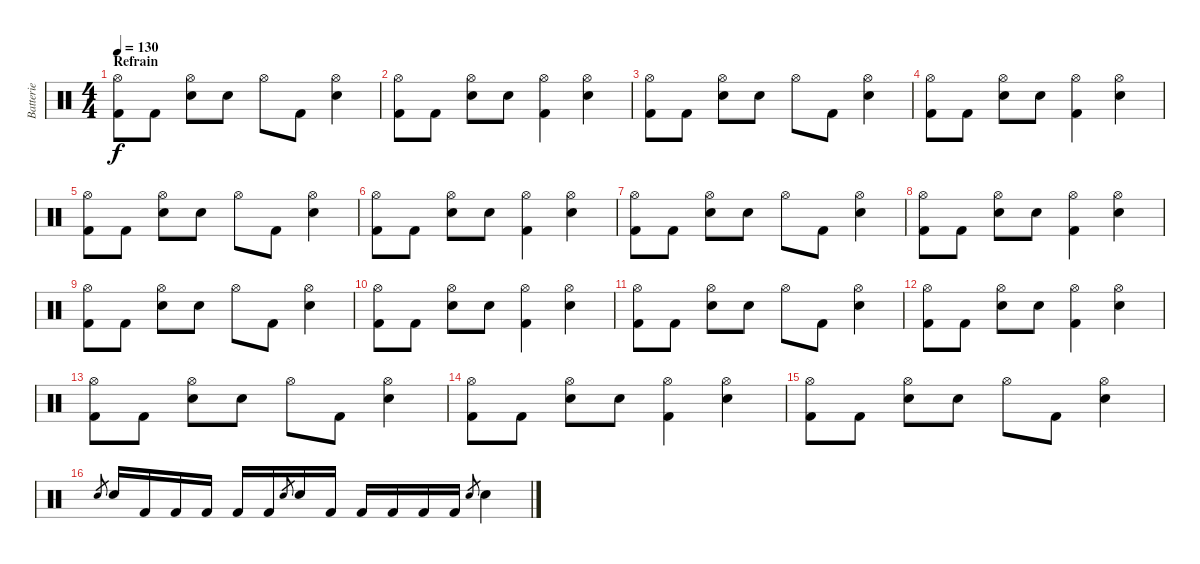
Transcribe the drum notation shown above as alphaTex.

\track ("Batterie" "Batterie") {instrument percussion}
\staff {score}
\articulation defaults
\ts (4 4)
\section ("" "Refrain")
\tempo 130
\clef neutral
\ks c
("Hi-Hat (open)" "Kick (hit) 2").8{dy f} "Kick (hit) 2".8 ("Hi-Hat (open)" "Snare (hit) 2").8 "Snare (hit) 2".8 "Hi-Hat (open)".8 "Kick (hit) 2".8 ("Hi-Hat (open)" "Snare (hit) 2").4 |
("Hi-Hat (open)" "Kick (hit) 2").8 "Kick (hit) 2".8 ("Hi-Hat (open)" "Snare (hit) 2").8 "Snare (hit) 2".8 ("Hi-Hat (open)" "Kick (hit) 2").4 ("Hi-Hat (open)" "Snare (hit) 2").4 |
("Hi-Hat (open)" "Kick (hit) 2").8 "Kick (hit) 2".8 ("Hi-Hat (open)" "Snare (hit) 2").8 "Snare (hit) 2".8 "Hi-Hat (open)".8 "Kick (hit) 2".8 ("Hi-Hat (open)" "Snare (hit) 2").4 |
("Hi-Hat (open)" "Kick (hit) 2").8 "Kick (hit) 2".8 ("Hi-Hat (open)" "Snare (hit) 2").8 "Snare (hit) 2".8 ("Hi-Hat (open)" "Kick (hit) 2").4 ("Hi-Hat (open)" "Snare (hit) 2").4 |
("Hi-Hat (open)" "Kick (hit) 2").8 "Kick (hit) 2".8 ("Hi-Hat (open)" "Snare (hit) 2").8 "Snare (hit) 2".8 "Hi-Hat (open)".8 "Kick (hit) 2".8 ("Hi-Hat (open)" "Snare (hit) 2").4 |
("Hi-Hat (open)" "Kick (hit) 2").8 "Kick (hit) 2".8 ("Hi-Hat (open)" "Snare (hit) 2").8 "Snare (hit) 2".8 ("Hi-Hat (open)" "Kick (hit) 2").4 ("Hi-Hat (open)" "Snare (hit) 2").4 |
("Hi-Hat (open)" "Kick (hit) 2").8 "Kick (hit) 2".8 ("Hi-Hat (open)" "Snare (hit) 2").8 "Snare (hit) 2".8 "Hi-Hat (open)".8 "Kick (hit) 2".8 ("Hi-Hat (open)" "Snare (hit) 2").4 |
("Hi-Hat (open)" "Kick (hit) 2").8 "Kick (hit) 2".8 ("Hi-Hat (open)" "Snare (hit) 2").8 "Snare (hit) 2".8 ("Hi-Hat (open)" "Kick (hit) 2").4 ("Hi-Hat (open)" "Snare (hit) 2").4 |
("Hi-Hat (open)" "Kick (hit) 2").8 "Kick (hit) 2".8 ("Hi-Hat (open)" "Snare (hit) 2").8 "Snare (hit) 2".8 "Hi-Hat (open)".8 "Kick (hit) 2".8 ("Hi-Hat (open)" "Snare (hit) 2").4 |
("Hi-Hat (open)" "Kick (hit) 2").8 "Kick (hit) 2".8 ("Hi-Hat (open)" "Snare (hit) 2").8 "Snare (hit) 2".8 ("Hi-Hat (open)" "Kick (hit) 2").4 ("Hi-Hat (open)" "Snare (hit) 2").4 |
("Hi-Hat (open)" "Kick (hit) 2").8 "Kick (hit) 2".8 ("Hi-Hat (open)" "Snare (hit) 2").8 "Snare (hit) 2".8 "Hi-Hat (open)".8 "Kick (hit) 2".8 ("Hi-Hat (open)" "Snare (hit) 2").4 |
("Hi-Hat (open)" "Kick (hit) 2").8 "Kick (hit) 2".8 ("Hi-Hat (open)" "Snare (hit) 2").8 "Snare (hit) 2".8 ("Hi-Hat (open)" "Kick (hit) 2").4 ("Hi-Hat (open)" "Snare (hit) 2").4 |
("Hi-Hat (open)" "Kick (hit) 2").8 "Kick (hit) 2".8 ("Hi-Hat (open)" "Snare (hit) 2").8 "Snare (hit) 2".8 "Hi-Hat (open)".8 "Kick (hit) 2".8 ("Hi-Hat (open)" "Snare (hit) 2").4 |
("Hi-Hat (open)" "Kick (hit) 2").8 "Kick (hit) 2".8 ("Hi-Hat (open)" "Snare (hit) 2").8 "Snare (hit) 2".8 ("Hi-Hat (open)" "Kick (hit) 2").4 ("Hi-Hat (open)" "Snare (hit) 2").4 |
("Hi-Hat (open)" "Kick (hit) 2").8 "Kick (hit) 2".8 ("Hi-Hat (open)" "Snare (hit) 2").8 "Snare (hit) 2".8 "Hi-Hat (open)".8 "Kick (hit) 2".8 ("Hi-Hat (open)" "Snare (hit) 2").4 |
"Snare (hit) 2".8{gr} "Snare (hit) 2".16 "Kick (hit) 2".16 "Kick (hit) 2".16 "Kick (hit) 2".16 "Kick (hit) 2".16 "Kick (hit) 2".16 "Snare (hit) 2".8{gr} "Snare (hit) 2".16 "Kick (hit) 2".16 "Kick (hit) 2".16 "Kick (hit) 2".16 "Kick (hit) 2".16 "Kick (hit) 2".16 "Snare (hit) 2".8{gr} "Snare (hit) 2".4
